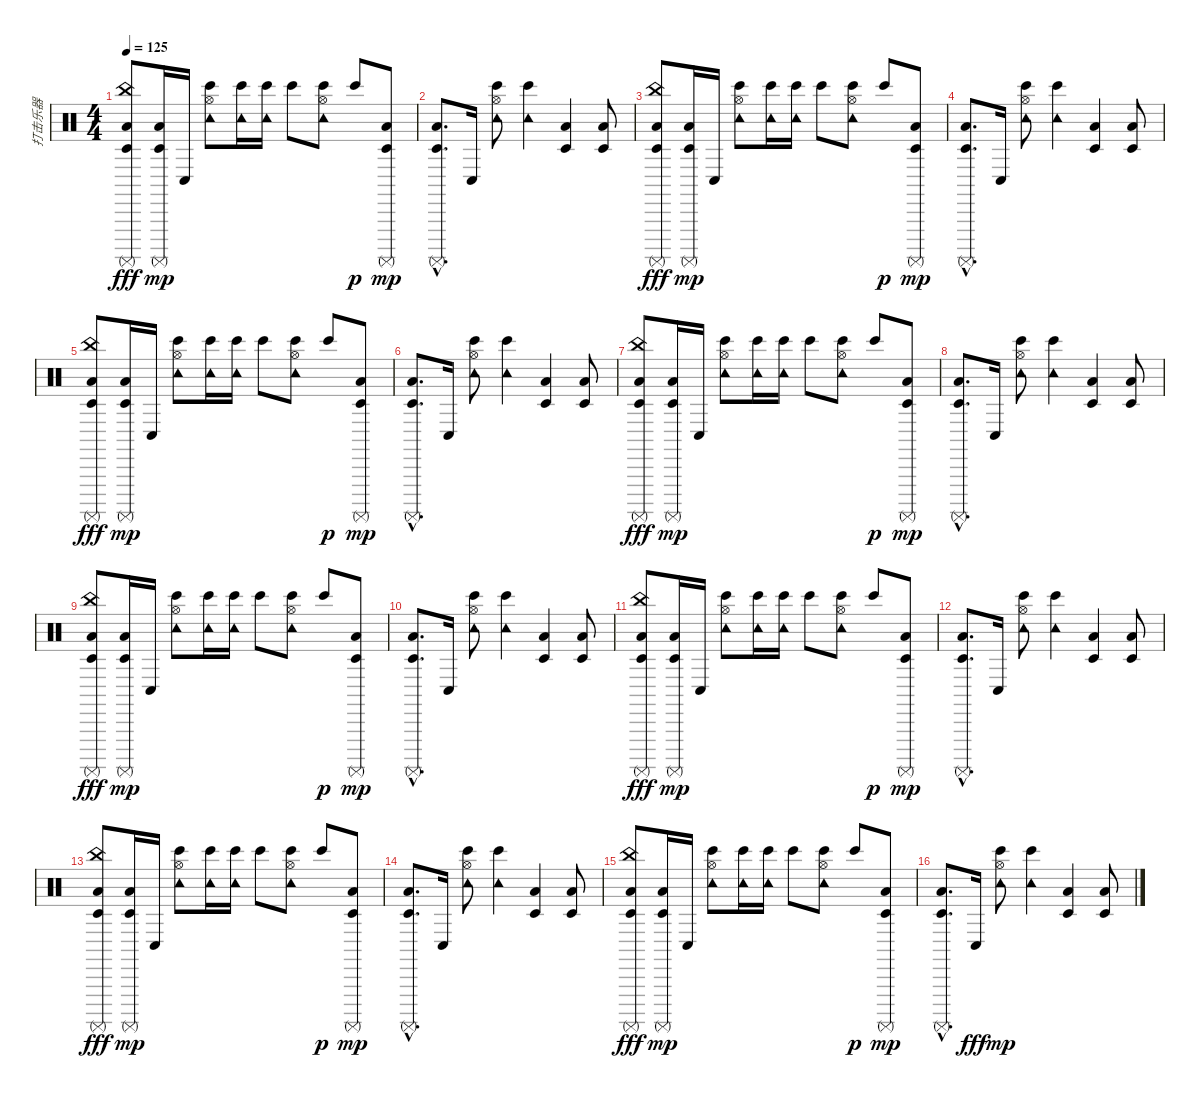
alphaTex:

\track ("打击乐器" "打击乐器") {instrument percussion}
\staff {score}
\articulation defaults
\ts (4 4)
\tempo 125
\clef neutral
\ks c
("Surdo (mute)" "Low Floor Tom (hit)" "Timbale low (hit)" "China (hit)").8{dy fff} ("Surdo (mute)" "Low Floor Tom (hit)" "Timbale low (hit)").16{dy mp} "Conga low (hit)".16 ("Tambourine (hit)" "Hi-Hat (open)" "Bongo High (hit)").8 ("Tambourine (hit)" "Bongo High (hit)").16 ("Tambourine (hit)" "Bongo High (hit)").16 "Bongo High (hit)".8 ("Tambourine (hit)" "Hi-Hat (open)" "Bongo High (hit)").8 "Bongo High (hit)".8{dy p} ("Surdo (mute)" "Low Floor Tom (hit)" "Timbale low (hit)").8{dy mp} |
("Surdo (mute)"{hac} "Low Floor Tom (hit)"{hac} "Timbale low (hit)"{hac}).8{d} "Conga low (hit)".16 ("Tambourine (hit)" "Hi-Hat (open)" "Bongo High (hit)").8 ("Tambourine (hit)" "Bongo High (hit)").4 ("Low Tom (hit)" "Timbale low (hit)").4 ("Low Tom (hit)" "Timbale low (hit)").8 |
("Surdo (mute)" "Low Floor Tom (hit)" "Timbale low (hit)" "China (hit)").8{dy fff} ("Surdo (mute)" "Low Floor Tom (hit)" "Timbale low (hit)").16{dy mp} "Conga low (hit)".16 ("Tambourine (hit)" "Hi-Hat (open)" "Bongo High (hit)").8 ("Tambourine (hit)" "Bongo High (hit)").16 ("Tambourine (hit)" "Bongo High (hit)").16 "Bongo High (hit)".8 ("Tambourine (hit)" "Hi-Hat (open)" "Bongo High (hit)").8 "Bongo High (hit)".8{dy p} ("Surdo (mute)" "Low Floor Tom (hit)" "Timbale low (hit)").8{dy mp} |
("Surdo (mute)"{hac} "Low Floor Tom (hit)"{hac} "Timbale low (hit)"{hac}).8{d} "Conga low (hit)".16 ("Tambourine (hit)" "Hi-Hat (open)" "Bongo High (hit)").8 ("Tambourine (hit)" "Bongo High (hit)").4 ("Low Tom (hit)" "Timbale low (hit)").4 ("Low Tom (hit)" "Timbale low (hit)").8 |
("Surdo (mute)" "Low Floor Tom (hit)" "Timbale low (hit)" "China (hit)").8{dy fff} ("Surdo (mute)" "Low Floor Tom (hit)" "Timbale low (hit)").16{dy mp} "Conga low (hit)".16 ("Tambourine (hit)" "Hi-Hat (open)" "Bongo High (hit)").8 ("Tambourine (hit)" "Bongo High (hit)").16 ("Tambourine (hit)" "Bongo High (hit)").16 "Bongo High (hit)".8 ("Tambourine (hit)" "Hi-Hat (open)" "Bongo High (hit)").8 "Bongo High (hit)".8{dy p} ("Surdo (mute)" "Low Floor Tom (hit)" "Timbale low (hit)").8{dy mp} |
("Surdo (mute)"{hac} "Low Floor Tom (hit)"{hac} "Timbale low (hit)"{hac}).8{d} "Conga low (hit)".16 ("Tambourine (hit)" "Hi-Hat (open)" "Bongo High (hit)").8 ("Tambourine (hit)" "Bongo High (hit)").4 ("Low Tom (hit)" "Timbale low (hit)").4 ("Low Tom (hit)" "Timbale low (hit)").8 |
("Surdo (mute)" "Low Floor Tom (hit)" "Timbale low (hit)" "China (hit)").8{dy fff} ("Surdo (mute)" "Low Floor Tom (hit)" "Timbale low (hit)").16{dy mp} "Conga low (hit)".16 ("Tambourine (hit)" "Hi-Hat (open)" "Bongo High (hit)").8 ("Tambourine (hit)" "Bongo High (hit)").16 ("Tambourine (hit)" "Bongo High (hit)").16 "Bongo High (hit)".8 ("Tambourine (hit)" "Hi-Hat (open)" "Bongo High (hit)").8 "Bongo High (hit)".8{dy p} ("Surdo (mute)" "Low Floor Tom (hit)" "Timbale low (hit)").8{dy mp} |
("Surdo (mute)"{hac} "Low Floor Tom (hit)"{hac} "Timbale low (hit)"{hac}).8{d} "Conga low (hit)".16 ("Tambourine (hit)" "Hi-Hat (open)" "Bongo High (hit)").8 ("Tambourine (hit)" "Bongo High (hit)").4 ("Low Tom (hit)" "Timbale low (hit)").4 ("Low Tom (hit)" "Timbale low (hit)").8 |
("Surdo (mute)" "Low Floor Tom (hit)" "Timbale low (hit)" "China (hit)").8{dy fff} ("Surdo (mute)" "Low Floor Tom (hit)" "Timbale low (hit)").16{dy mp} "Conga low (hit)".16 ("Tambourine (hit)" "Hi-Hat (open)" "Bongo High (hit)").8 ("Tambourine (hit)" "Bongo High (hit)").16 ("Tambourine (hit)" "Bongo High (hit)").16 "Bongo High (hit)".8 ("Tambourine (hit)" "Hi-Hat (open)" "Bongo High (hit)").8 "Bongo High (hit)".8{dy p} ("Surdo (mute)" "Low Floor Tom (hit)" "Timbale low (hit)").8{dy mp} |
("Surdo (mute)"{hac} "Low Floor Tom (hit)"{hac} "Timbale low (hit)"{hac}).8{d} "Conga low (hit)".16 ("Tambourine (hit)" "Hi-Hat (open)" "Bongo High (hit)").8 ("Tambourine (hit)" "Bongo High (hit)").4 ("Low Tom (hit)" "Timbale low (hit)").4 ("Low Tom (hit)" "Timbale low (hit)").8 |
("Surdo (mute)" "Low Floor Tom (hit)" "Timbale low (hit)" "China (hit)").8{dy fff} ("Surdo (mute)" "Low Floor Tom (hit)" "Timbale low (hit)").16{dy mp} "Conga low (hit)".16 ("Tambourine (hit)" "Hi-Hat (open)" "Bongo High (hit)").8 ("Tambourine (hit)" "Bongo High (hit)").16 ("Tambourine (hit)" "Bongo High (hit)").16 "Bongo High (hit)".8 ("Tambourine (hit)" "Hi-Hat (open)" "Bongo High (hit)").8 "Bongo High (hit)".8{dy p} ("Surdo (mute)" "Low Floor Tom (hit)" "Timbale low (hit)").8{dy mp} |
("Surdo (mute)"{hac} "Low Floor Tom (hit)"{hac} "Timbale low (hit)"{hac}).8{d} "Conga low (hit)".16 ("Tambourine (hit)" "Hi-Hat (open)" "Bongo High (hit)").8 ("Tambourine (hit)" "Bongo High (hit)").4 ("Low Tom (hit)" "Timbale low (hit)").4 ("Low Tom (hit)" "Timbale low (hit)").8 |
("Surdo (mute)" "Low Floor Tom (hit)" "Timbale low (hit)" "China (hit)").8{dy fff} ("Surdo (mute)" "Low Floor Tom (hit)" "Timbale low (hit)").16{dy mp} "Conga low (hit)".16 ("Tambourine (hit)" "Hi-Hat (open)" "Bongo High (hit)").8 ("Tambourine (hit)" "Bongo High (hit)").16 ("Tambourine (hit)" "Bongo High (hit)").16 "Bongo High (hit)".8 ("Tambourine (hit)" "Hi-Hat (open)" "Bongo High (hit)").8 "Bongo High (hit)".8{dy p} ("Surdo (mute)" "Low Floor Tom (hit)" "Timbale low (hit)").8{dy mp} |
("Surdo (mute)"{hac} "Low Floor Tom (hit)"{hac} "Timbale low (hit)"{hac}).8{d} "Conga low (hit)".16 ("Tambourine (hit)" "Hi-Hat (open)" "Bongo High (hit)").8 ("Tambourine (hit)" "Bongo High (hit)").4 ("Low Tom (hit)" "Timbale low (hit)").4 ("Low Tom (hit)" "Timbale low (hit)").8 |
("Surdo (mute)" "Low Floor Tom (hit)" "Timbale low (hit)" "China (hit)").8{dy fff} ("Surdo (mute)" "Low Floor Tom (hit)" "Timbale low (hit)").16{dy mp} "Conga low (hit)".16 ("Tambourine (hit)" "Hi-Hat (open)" "Bongo High (hit)").8 ("Tambourine (hit)" "Bongo High (hit)").16 ("Tambourine (hit)" "Bongo High (hit)").16 "Bongo High (hit)".8 ("Tambourine (hit)" "Hi-Hat (open)" "Bongo High (hit)").8 "Bongo High (hit)".8{dy p} ("Surdo (mute)" "Low Floor Tom (hit)" "Timbale low (hit)").8{dy mp} |
("Surdo (mute)"{hac} "Low Floor Tom (hit)"{hac} "Timbale low (hit)"{hac}).8{d} "Conga low (hit)".16{dy fff} ("Tambourine (hit)" "Hi-Hat (open)" "Bongo High (hit)").8{dy mp} ("Tambourine (hit)" "Bongo High (hit)").4 ("Low Tom (hit)" "Timbale low (hit)").4 ("Low Tom (hit)" "Timbale low (hit)").8
